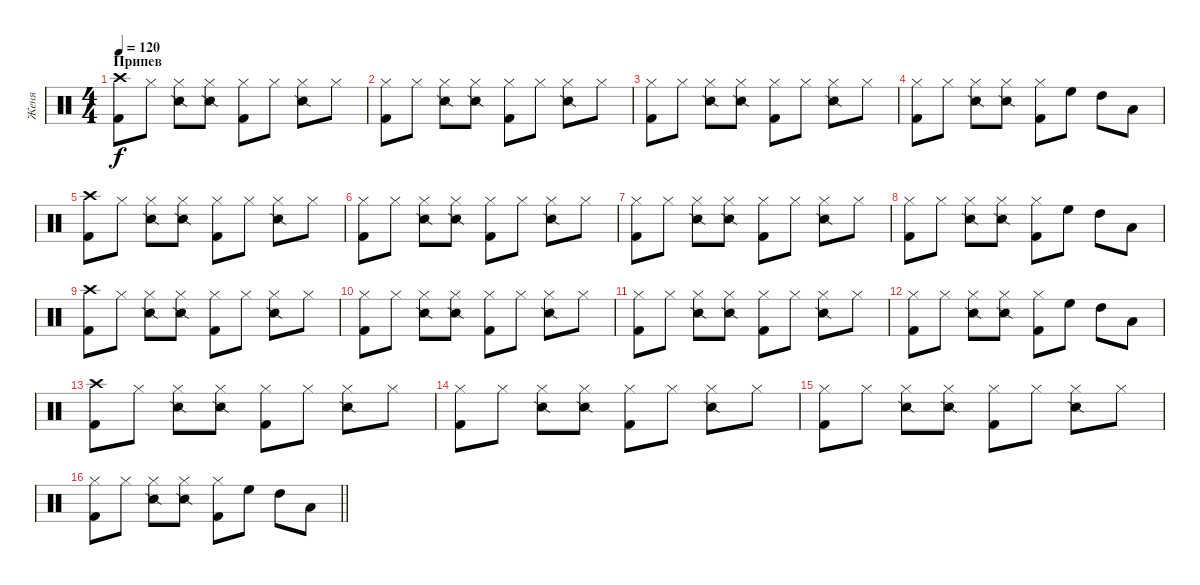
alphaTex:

\track ("Женя" "Женя") {instrument percussion}
\staff {score}
\articulation defaults
\ts (4 4)
\section ("" "Припев")
\tempo 120
\clef neutral
\ks c
("Crash high (hit)" "Kick (hit) 2").8{dy f} "Hi-Hat (closed)".8 ("Hi-Hat (closed)" "Snare (side stick) 2").8 ("Hi-Hat (closed)" "Snare (side stick) 2").8 ("Hi-Hat (closed)" "Kick (hit) 2").8 "Hi-Hat (closed)".8 ("Hi-Hat (closed)" "Snare (side stick) 2").8 "Hi-Hat (closed)".8 |
("Hi-Hat (closed)" "Kick (hit) 2").8 "Hi-Hat (closed)".8 ("Hi-Hat (closed)" "Snare (side stick) 2").8 ("Hi-Hat (closed)" "Snare (side stick) 2").8 ("Hi-Hat (closed)" "Kick (hit) 2").8 "Hi-Hat (closed)".8 ("Hi-Hat (closed)" "Snare (side stick) 2").8 "Hi-Hat (closed)".8 |
("Hi-Hat (closed)" "Kick (hit) 2").8 "Hi-Hat (closed)".8 ("Hi-Hat (closed)" "Snare (side stick) 2").8 ("Hi-Hat (closed)" "Snare (side stick) 2").8 ("Hi-Hat (closed)" "Kick (hit) 2").8 "Hi-Hat (closed)".8 ("Hi-Hat (closed)" "Snare (side stick) 2").8 "Hi-Hat (closed)".8 |
("Hi-Hat (closed)" "Kick (hit) 2").8 "Hi-Hat (closed)".8 ("Hi-Hat (closed)" "Snare (side stick) 2").8 ("Hi-Hat (closed)" "Snare (side stick) 2").8 ("Hi-Hat (closed)" "Kick (hit) 2").8 "High Floor Tom (hit)".8 "High Tom (hit)".8 "Low Tom (hit)".8 |
("Crash high (hit)" "Kick (hit) 2").8 "Hi-Hat (closed)".8 ("Hi-Hat (closed)" "Snare (side stick) 2").8 ("Hi-Hat (closed)" "Snare (side stick) 2").8 ("Hi-Hat (closed)" "Kick (hit) 2").8 "Hi-Hat (closed)".8 ("Hi-Hat (closed)" "Snare (side stick) 2").8 "Hi-Hat (closed)".8 |
("Hi-Hat (closed)" "Kick (hit) 2").8 "Hi-Hat (closed)".8 ("Hi-Hat (closed)" "Snare (side stick) 2").8 ("Hi-Hat (closed)" "Snare (side stick) 2").8 ("Hi-Hat (closed)" "Kick (hit) 2").8 "Hi-Hat (closed)".8 ("Hi-Hat (closed)" "Snare (side stick) 2").8 "Hi-Hat (closed)".8 |
("Hi-Hat (closed)" "Kick (hit) 2").8 "Hi-Hat (closed)".8 ("Hi-Hat (closed)" "Snare (side stick) 2").8 ("Hi-Hat (closed)" "Snare (side stick) 2").8 ("Hi-Hat (closed)" "Kick (hit) 2").8 "Hi-Hat (closed)".8 ("Hi-Hat (closed)" "Snare (side stick) 2").8 "Hi-Hat (closed)".8 |
("Hi-Hat (closed)" "Kick (hit) 2").8 "Hi-Hat (closed)".8 ("Hi-Hat (closed)" "Snare (side stick) 2").8 ("Hi-Hat (closed)" "Snare (side stick) 2").8 ("Hi-Hat (closed)" "Kick (hit) 2").8 "High Floor Tom (hit)".8 "High Tom (hit)".8 "Low Tom (hit)".8 |
("Crash high (hit)" "Kick (hit) 2").8 "Hi-Hat (closed)".8 ("Hi-Hat (closed)" "Snare (side stick) 2").8 ("Hi-Hat (closed)" "Snare (side stick) 2").8 ("Hi-Hat (closed)" "Kick (hit) 2").8 "Hi-Hat (closed)".8 ("Hi-Hat (closed)" "Snare (side stick) 2").8 "Hi-Hat (closed)".8 |
("Hi-Hat (closed)" "Kick (hit) 2").8 "Hi-Hat (closed)".8 ("Hi-Hat (closed)" "Snare (side stick) 2").8 ("Hi-Hat (closed)" "Snare (side stick) 2").8 ("Hi-Hat (closed)" "Kick (hit) 2").8 "Hi-Hat (closed)".8 ("Hi-Hat (closed)" "Snare (side stick) 2").8 "Hi-Hat (closed)".8 |
("Hi-Hat (closed)" "Kick (hit) 2").8 "Hi-Hat (closed)".8 ("Hi-Hat (closed)" "Snare (side stick) 2").8 ("Hi-Hat (closed)" "Snare (side stick) 2").8 ("Hi-Hat (closed)" "Kick (hit) 2").8 "Hi-Hat (closed)".8 ("Hi-Hat (closed)" "Snare (side stick) 2").8 "Hi-Hat (closed)".8 |
("Hi-Hat (closed)" "Kick (hit) 2").8 "Hi-Hat (closed)".8 ("Hi-Hat (closed)" "Snare (side stick) 2").8 ("Hi-Hat (closed)" "Snare (side stick) 2").8 ("Hi-Hat (closed)" "Kick (hit) 2").8 "High Floor Tom (hit)".8 "High Tom (hit)".8 "Low Tom (hit)".8 |
("Crash high (hit)" "Kick (hit) 2").8 "Hi-Hat (closed)".8 ("Hi-Hat (closed)" "Snare (side stick) 2").8 ("Hi-Hat (closed)" "Snare (side stick) 2").8 ("Hi-Hat (closed)" "Kick (hit) 2").8 "Hi-Hat (closed)".8 ("Hi-Hat (closed)" "Snare (side stick) 2").8 "Hi-Hat (closed)".8 |
("Hi-Hat (closed)" "Kick (hit) 2").8 "Hi-Hat (closed)".8 ("Hi-Hat (closed)" "Snare (side stick) 2").8 ("Hi-Hat (closed)" "Snare (side stick) 2").8 ("Hi-Hat (closed)" "Kick (hit) 2").8 "Hi-Hat (closed)".8 ("Hi-Hat (closed)" "Snare (side stick) 2").8 "Hi-Hat (closed)".8 |
("Hi-Hat (closed)" "Kick (hit) 2").8 "Hi-Hat (closed)".8 ("Hi-Hat (closed)" "Snare (side stick) 2").8 ("Hi-Hat (closed)" "Snare (side stick) 2").8 ("Hi-Hat (closed)" "Kick (hit) 2").8 "Hi-Hat (closed)".8 ("Hi-Hat (closed)" "Snare (side stick) 2").8 "Hi-Hat (closed)".8 |
\barLineRight lightlight
("Hi-Hat (closed)" "Kick (hit) 2").8 "Hi-Hat (closed)".8 ("Hi-Hat (closed)" "Snare (side stick) 2").8 ("Hi-Hat (closed)" "Snare (side stick) 2").8 ("Hi-Hat (closed)" "Kick (hit) 2").8 "High Floor Tom (hit)".8 "High Tom (hit)".8 "Low Tom (hit)".8
